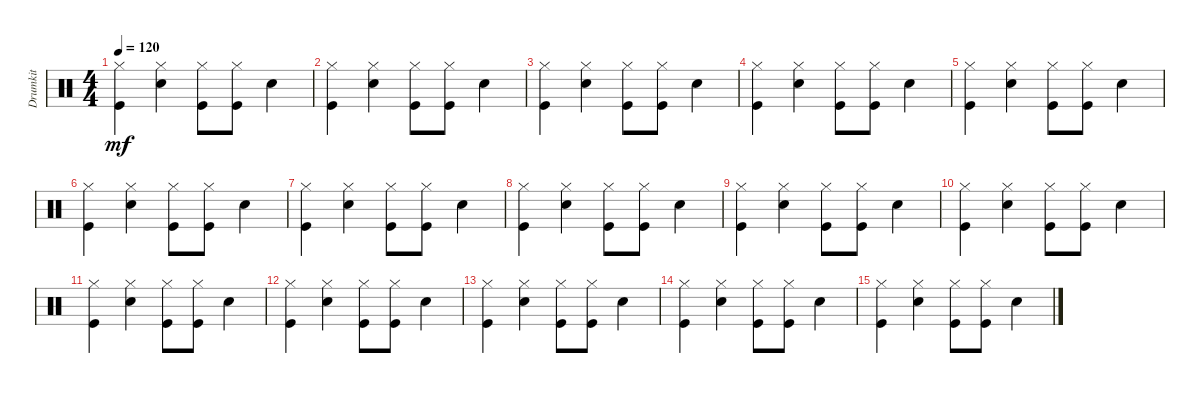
\track ("Drumkit" "Drumkit") {instrument percussion}
\staff {score}
\articulation defaults
\ts (4 4)
\tempo 120
\clef neutral
\ks c
("Hi-Hat (closed)" "Kick (hit)").4{dy mf} ("Hi-Hat (closed)" "Snare (hit) 2").4 ("Hi-Hat (closed)" "Kick (hit)").8 ("Hi-Hat (closed)" "Kick (hit)").8 "Snare (hit) 2".4 |
("Hi-Hat (closed)" "Kick (hit)").4 ("Hi-Hat (closed)" "Snare (hit) 2").4 ("Hi-Hat (closed)" "Kick (hit)").8 ("Hi-Hat (closed)" "Kick (hit)").8 "Snare (hit) 2".4 |
("Hi-Hat (closed)" "Kick (hit)").4 ("Hi-Hat (closed)" "Snare (hit) 2").4 ("Hi-Hat (closed)" "Kick (hit)").8 ("Hi-Hat (closed)" "Kick (hit)").8 "Snare (hit) 2".4 |
("Hi-Hat (closed)" "Kick (hit)").4 ("Hi-Hat (closed)" "Snare (hit) 2").4 ("Hi-Hat (closed)" "Kick (hit)").8 ("Hi-Hat (closed)" "Kick (hit)").8 "Snare (hit) 2".4 |
("Hi-Hat (closed)" "Kick (hit)").4 ("Hi-Hat (closed)" "Snare (hit) 2").4 ("Hi-Hat (closed)" "Kick (hit)").8 ("Hi-Hat (closed)" "Kick (hit)").8 "Snare (hit) 2".4 |
("Hi-Hat (closed)" "Kick (hit)").4 ("Hi-Hat (closed)" "Snare (hit) 2").4 ("Hi-Hat (closed)" "Kick (hit)").8 ("Hi-Hat (closed)" "Kick (hit)").8 "Snare (hit) 2".4 |
("Hi-Hat (closed)" "Kick (hit)").4 ("Hi-Hat (closed)" "Snare (hit) 2").4 ("Hi-Hat (closed)" "Kick (hit)").8 ("Hi-Hat (closed)" "Kick (hit)").8 "Snare (hit) 2".4 |
("Hi-Hat (closed)" "Kick (hit)").4 ("Hi-Hat (closed)" "Snare (hit) 2").4 ("Hi-Hat (closed)" "Kick (hit)").8 ("Hi-Hat (closed)" "Kick (hit)").8 "Snare (hit) 2".4 |
("Hi-Hat (closed)" "Kick (hit)").4 ("Hi-Hat (closed)" "Snare (hit) 2").4 ("Hi-Hat (closed)" "Kick (hit)").8 ("Hi-Hat (closed)" "Kick (hit)").8 "Snare (hit) 2".4 |
("Hi-Hat (closed)" "Kick (hit)").4 ("Hi-Hat (closed)" "Snare (hit) 2").4 ("Hi-Hat (closed)" "Kick (hit)").8 ("Hi-Hat (closed)" "Kick (hit)").8 "Snare (hit) 2".4 |
("Hi-Hat (closed)" "Kick (hit)").4 ("Hi-Hat (closed)" "Snare (hit) 2").4 ("Hi-Hat (closed)" "Kick (hit)").8 ("Hi-Hat (closed)" "Kick (hit)").8 "Snare (hit) 2".4 |
("Hi-Hat (closed)" "Kick (hit)").4 ("Hi-Hat (closed)" "Snare (hit) 2").4 ("Hi-Hat (closed)" "Kick (hit)").8 ("Hi-Hat (closed)" "Kick (hit)").8 "Snare (hit) 2".4 |
("Hi-Hat (closed)" "Kick (hit)").4 ("Hi-Hat (closed)" "Snare (hit) 2").4 ("Hi-Hat (closed)" "Kick (hit)").8 ("Hi-Hat (closed)" "Kick (hit)").8 "Snare (hit) 2".4 |
("Hi-Hat (closed)" "Kick (hit)").4 ("Hi-Hat (closed)" "Snare (hit) 2").4 ("Hi-Hat (closed)" "Kick (hit)").8 ("Hi-Hat (closed)" "Kick (hit)").8 "Snare (hit) 2".4 |
("Hi-Hat (closed)" "Kick (hit)").4 ("Hi-Hat (closed)" "Snare (hit) 2").4 ("Hi-Hat (closed)" "Kick (hit)").8 ("Hi-Hat (closed)" "Kick (hit)").8 "Snare (hit) 2".4
